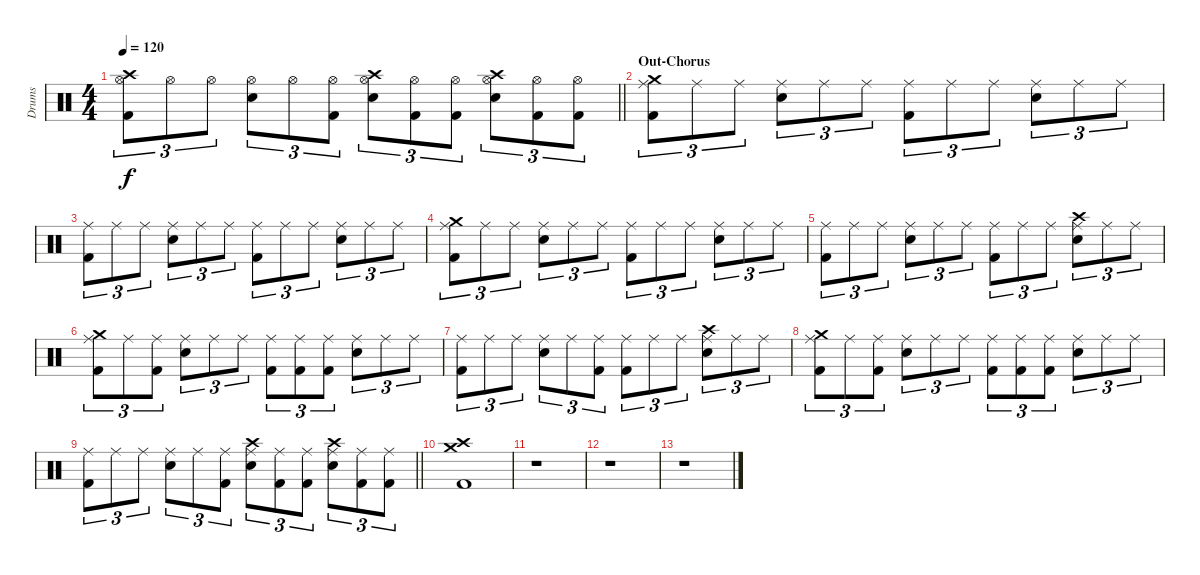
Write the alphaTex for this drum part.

\track ("Drums" "Drums") {instrument percussion}
\staff {score}
\articulation defaults
\ts (4 4)
\tempo 120
\clef neutral
\barLineRight lightlight
\ks c
("Crash high (hit)" "Hi-Hat (open)" "Kick (hit) 2").8{tu (3 2) dy f} "Hi-Hat (open)".8{tu (3 2)} "Hi-Hat (open)".8{tu (3 2)} ("Hi-Hat (open)" "Snare (hit) 2").8{tu (3 2)} "Hi-Hat (open)".8{tu (3 2)} ("Hi-Hat (open)" "Kick (hit) 2").8{tu (3 2)} ("Crash high (hit)" "Hi-Hat (open)" "Snare (hit) 2").8{tu (3 2)} ("Hi-Hat (open)" "Kick (hit) 2").8{tu (3 2)} ("Hi-Hat (open)" "Kick (hit) 2").8{tu (3 2)} ("Crash high (hit)" "Hi-Hat (open)" "Snare (hit) 2").8{tu (3 2)} ("Hi-Hat (open)" "Kick (hit) 2").8{tu (3 2)} ("Hi-Hat (open)" "Kick (hit) 2").8{tu (3 2)} |
\section ("" "Out-Chorus")
("Crash medium (hit)" "Ride (middle)" "Kick (hit) 2").8{tu (3 2)} "Ride (middle)".8{tu (3 2)} "Ride (middle)".8{tu (3 2)} ("Ride (middle)" "Snare (hit) 2").8{tu (3 2)} "Ride (middle)".8{tu (3 2)} "Ride (middle)".8{tu (3 2)} ("Ride (middle)" "Kick (hit) 2").8{tu (3 2)} "Ride (middle)".8{tu (3 2)} "Ride (middle)".8{tu (3 2)} ("Ride (middle)" "Snare (hit) 2").8{tu (3 2)} "Ride (middle)".8{tu (3 2)} "Ride (middle)".8{tu (3 2)} |
("Ride (middle)" "Kick (hit) 2").8{tu (3 2)} "Ride (middle)".8{tu (3 2)} "Ride (middle)".8{tu (3 2)} ("Ride (middle)" "Snare (hit) 2").8{tu (3 2)} "Ride (middle)".8{tu (3 2)} "Ride (middle)".8{tu (3 2)} ("Ride (middle)" "Kick (hit) 2").8{tu (3 2)} "Ride (middle)".8{tu (3 2)} "Ride (middle)".8{tu (3 2)} ("Ride (middle)" "Snare (hit) 2").8{tu (3 2)} "Ride (middle)".8{tu (3 2)} "Ride (middle)".8{tu (3 2)} |
("Crash medium (hit)" "Ride (middle)" "Kick (hit) 2").8{tu (3 2)} "Ride (middle)".8{tu (3 2)} "Ride (middle)".8{tu (3 2)} ("Ride (middle)" "Snare (hit) 2").8{tu (3 2)} "Ride (middle)".8{tu (3 2)} "Ride (middle)".8{tu (3 2)} ("Ride (middle)" "Kick (hit) 2").8{tu (3 2)} "Ride (middle)".8{tu (3 2)} "Ride (middle)".8{tu (3 2)} ("Ride (middle)" "Snare (hit) 2").8{tu (3 2)} "Ride (middle)".8{tu (3 2)} "Ride (middle)".8{tu (3 2)} |
("Ride (middle)" "Kick (hit) 2").8{tu (3 2)} "Ride (middle)".8{tu (3 2)} "Ride (middle)".8{tu (3 2)} ("Ride (middle)" "Snare (hit) 2").8{tu (3 2)} "Ride (middle)".8{tu (3 2)} "Ride (middle)".8{tu (3 2)} ("Ride (middle)" "Kick (hit) 2").8{tu (3 2)} "Ride (middle)".8{tu (3 2)} "Ride (middle)".8{tu (3 2)} ("Crash high (hit)" "Ride (middle)" "Snare (hit) 2").8{tu (3 2)} "Ride (middle)".8{tu (3 2)} "Ride (middle)".8{tu (3 2)} |
("Crash medium (hit)" "Ride (middle)" "Kick (hit) 2").8{tu (3 2)} "Ride (middle)".8{tu (3 2)} ("Ride (middle)" "Kick (hit) 2").8{tu (3 2)} ("Ride (middle)" "Snare (hit) 2").8{tu (3 2)} "Ride (middle)".8{tu (3 2)} "Ride (middle)".8{tu (3 2)} ("Ride (middle)" "Kick (hit) 2").8{tu (3 2)} ("Ride (middle)" "Kick (hit) 2").8{tu (3 2)} ("Ride (middle)" "Kick (hit) 2").8{tu (3 2)} ("Ride (middle)" "Snare (hit) 2").8{tu (3 2)} "Ride (middle)".8{tu (3 2)} "Ride (middle)".8{tu (3 2)} |
("Ride (middle)" "Kick (hit) 2").8{tu (3 2)} "Ride (middle)".8{tu (3 2)} "Ride (middle)".8{tu (3 2)} ("Ride (middle)" "Snare (hit) 2").8{tu (3 2)} "Ride (middle)".8{tu (3 2)} ("Ride (middle)" "Kick (hit) 2").8{tu (3 2)} ("Ride (middle)" "Kick (hit) 2").8{tu (3 2)} "Ride (middle)".8{tu (3 2)} "Ride (middle)".8{tu (3 2)} ("Crash high (hit)" "Ride (middle)" "Snare (hit) 2").8{tu (3 2)} "Ride (middle)".8{tu (3 2)} "Ride (middle)".8{tu (3 2)} |
("Crash medium (hit)" "Ride (middle)" "Kick (hit) 2").8{tu (3 2)} "Ride (middle)".8{tu (3 2)} ("Ride (middle)" "Kick (hit) 2").8{tu (3 2)} ("Ride (middle)" "Snare (hit) 2").8{tu (3 2)} "Ride (middle)".8{tu (3 2)} "Ride (middle)".8{tu (3 2)} ("Ride (middle)" "Kick (hit) 2").8{tu (3 2)} ("Ride (middle)" "Kick (hit) 2").8{tu (3 2)} ("Ride (middle)" "Kick (hit) 2").8{tu (3 2)} ("Ride (middle)" "Snare (hit) 2").8{tu (3 2)} "Ride (middle)".8{tu (3 2)} "Ride (middle)".8{tu (3 2)} |
\barLineRight lightlight
("Ride (middle)" "Kick (hit) 2").8{tu (3 2)} "Ride (middle)".8{tu (3 2)} "Ride (middle)".8{tu (3 2)} ("Ride (middle)" "Snare (hit) 2").8{tu (3 2)} "Ride (middle)".8{tu (3 2)} ("Ride (middle)" "Kick (hit) 2").8{tu (3 2)} ("Crash high (hit)" "Ride (middle)" "Snare (hit) 2").8{tu (3 2)} ("Ride (middle)" "Kick (hit) 2").8{tu (3 2)} ("Ride (middle)" "Kick (hit) 2").8{tu (3 2)} ("Crash high (hit)" "Ride (middle)" "Snare (hit) 2").8{tu (3 2)} ("Ride (middle)" "Kick (hit) 2").8{tu (3 2)} ("Ride (middle)" "Kick (hit) 2").8{tu (3 2)} |
("Crash high (hit)" "Crash medium (hit)" "Kick (hit) 2").1 |
r.1 |
r.1 |
r.1
